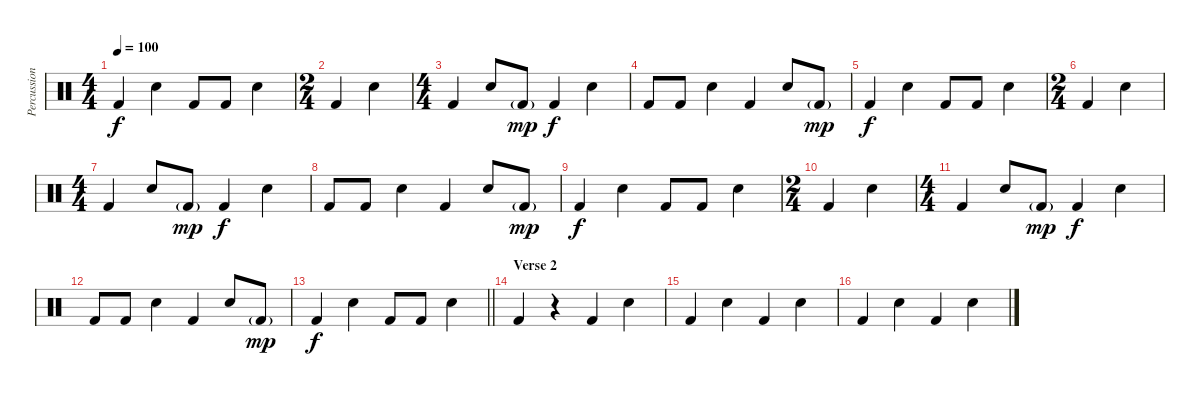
\track ("Percussion" "Percussion") {instrument percussion}
\staff {score}
\articulation defaults
\ts (4 4)
\tempo 100
\clef neutral
\ks c "Kick (hit) 2".4{dy f} "Snare (hit) 2".4 "Kick (hit) 2".8 "Kick (hit) 2".8 "Snare (hit) 2".4
|
\ts (2 4)
"Kick (hit) 2".4 "Snare (hit) 2".4 |
\ts (4 4)
"Kick (hit) 2".4 "Snare (hit) 2".8 "Kick (hit) 2"{g}.8{dy mp} "Kick (hit) 2".4{dy f} "Snare (hit) 2".4 |
"Kick (hit) 2".8 "Kick (hit) 2".8 "Snare (hit) 2".4 "Kick (hit) 2".4 "Snare (hit) 2".8 "Kick (hit) 2"{g}.8{dy mp} |
"Kick (hit) 2".4{dy f} "Snare (hit) 2".4 "Kick (hit) 2".8 "Kick (hit) 2".8 "Snare (hit) 2".4 |
\ts (2 4)
"Kick (hit) 2".4 "Snare (hit) 2".4 |
\ts (4 4)
"Kick (hit) 2".4 "Snare (hit) 2".8 "Kick (hit) 2"{g}.8{dy mp} "Kick (hit) 2".4{dy f} "Snare (hit) 2".4 |
"Kick (hit) 2".8 "Kick (hit) 2".8 "Snare (hit) 2".4 "Kick (hit) 2".4 "Snare (hit) 2".8 "Kick (hit) 2"{g}.8{dy mp} |
"Kick (hit) 2".4{dy f} "Snare (hit) 2".4 "Kick (hit) 2".8 "Kick (hit) 2".8 "Snare (hit) 2".4 |
\ts (2 4)
"Kick (hit) 2".4 "Snare (hit) 2".4 |
\ts (4 4)
"Kick (hit) 2".4 "Snare (hit) 2".8 "Kick (hit) 2"{g}.8{dy mp} "Kick (hit) 2".4{dy f} "Snare (hit) 2".4 |
"Kick (hit) 2".8 "Kick (hit) 2".8 "Snare (hit) 2".4 "Kick (hit) 2".4 "Snare (hit) 2".8 "Kick (hit) 2"{g}.8{dy mp} |
\barLineRight lightlight "Kick (hit) 2".4{dy f} "Snare (hit) 2".4 "Kick (hit) 2".8 "Kick (hit) 2".8 "Snare (hit) 2".4
|
\section ("" "Verse 2")
"Kick (hit) 2".4 r.4 "Kick (hit) 2".4 "Snare (hit) 2".4 |
"Kick (hit) 2".4 "Snare (hit) 2".4 "Kick (hit) 2".4 "Snare (hit) 2".4 |
"Kick (hit) 2".4 "Snare (hit) 2".4 "Kick (hit) 2".4 "Snare (hit) 2".4
